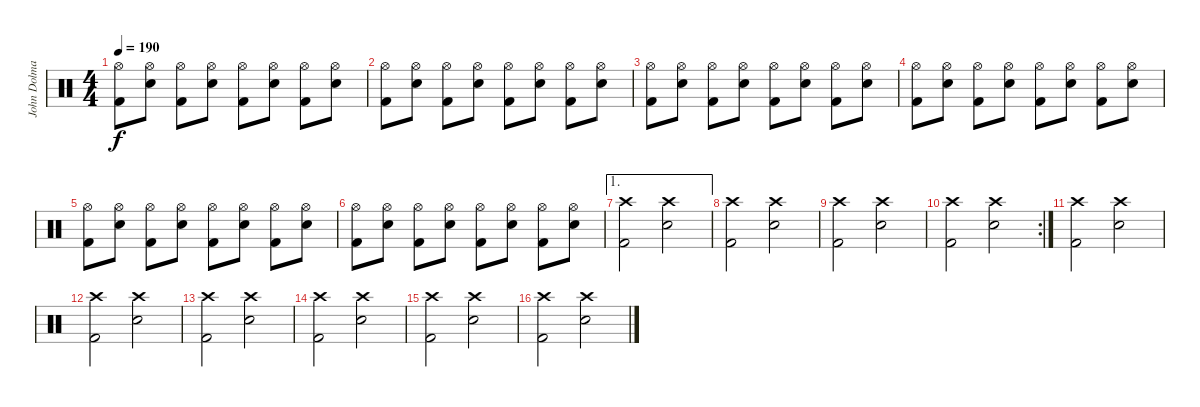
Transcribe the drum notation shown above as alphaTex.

\track ("John Dolmayan" "John Dolma") {instrument percussion}
\staff {score}
\articulation defaults
\ts (4 4)
\tempo 190
\clef neutral
\ks c
("Hi-Hat (open)" "Kick (hit) 2").8{dy f} ("Hi-Hat (open)" "Electric Snare (hit)").8 ("Hi-Hat (open)" "Kick (hit) 2").8 ("Hi-Hat (open)" "Electric Snare (hit)").8 ("Hi-Hat (open)" "Kick (hit) 2").8 ("Hi-Hat (open)" "Electric Snare (hit)").8 ("Hi-Hat (open)" "Kick (hit) 2").8 ("Hi-Hat (open)" "Electric Snare (hit)").8 |
("Hi-Hat (open)" "Kick (hit) 2").8 ("Hi-Hat (open)" "Electric Snare (hit)").8 ("Hi-Hat (open)" "Kick (hit) 2").8 ("Hi-Hat (open)" "Electric Snare (hit)").8 ("Hi-Hat (open)" "Kick (hit) 2").8 ("Hi-Hat (open)" "Electric Snare (hit)").8 ("Hi-Hat (open)" "Kick (hit) 2").8 ("Hi-Hat (open)" "Electric Snare (hit)").8 |
("Hi-Hat (open)" "Kick (hit) 2").8 ("Hi-Hat (open)" "Electric Snare (hit)").8 ("Hi-Hat (open)" "Kick (hit) 2").8 ("Hi-Hat (open)" "Electric Snare (hit)").8 ("Hi-Hat (open)" "Kick (hit) 2").8 ("Hi-Hat (open)" "Electric Snare (hit)").8 ("Hi-Hat (open)" "Kick (hit) 2").8 ("Hi-Hat (open)" "Electric Snare (hit)").8 |
("Hi-Hat (open)" "Kick (hit) 2").8 ("Hi-Hat (open)" "Electric Snare (hit)").8 ("Hi-Hat (open)" "Kick (hit) 2").8 ("Hi-Hat (open)" "Electric Snare (hit)").8 ("Hi-Hat (open)" "Kick (hit) 2").8 ("Hi-Hat (open)" "Electric Snare (hit)").8 ("Hi-Hat (open)" "Kick (hit) 2").8 ("Hi-Hat (open)" "Electric Snare (hit)").8 |
("Hi-Hat (open)" "Kick (hit) 2").8 ("Hi-Hat (open)" "Electric Snare (hit)").8 ("Hi-Hat (open)" "Kick (hit) 2").8 ("Hi-Hat (open)" "Electric Snare (hit)").8 ("Hi-Hat (open)" "Kick (hit) 2").8 ("Hi-Hat (open)" "Electric Snare (hit)").8 ("Hi-Hat (open)" "Kick (hit) 2").8 ("Hi-Hat (open)" "Electric Snare (hit)").8 |
("Hi-Hat (open)" "Kick (hit) 2").8 ("Hi-Hat (open)" "Electric Snare (hit)").8 ("Hi-Hat (open)" "Kick (hit) 2").8 ("Hi-Hat (open)" "Electric Snare (hit)").8 ("Hi-Hat (open)" "Kick (hit) 2").8 ("Hi-Hat (open)" "Electric Snare (hit)").8 ("Hi-Hat (open)" "Kick (hit) 2").8 ("Hi-Hat (open)" "Electric Snare (hit)").8 |
\ae 1
("Crash high (hit)" "Kick (hit) 2").2 ("Crash high (hit)" "Electric Snare (hit)").2 |
("Crash high (hit)" "Kick (hit) 2").2 ("Crash high (hit)" "Electric Snare (hit)").2 |
("Crash high (hit)" "Kick (hit) 2").2 ("Crash high (hit)" "Electric Snare (hit)").2 |
\rc 2
("Crash high (hit)" "Kick (hit) 2").2 ("Crash high (hit)" "Electric Snare (hit)").2 |
("Crash high (hit)" "Kick (hit) 2").2 ("Crash high (hit)" "Electric Snare (hit)").2 |
("Crash high (hit)" "Kick (hit) 2").2 ("Crash high (hit)" "Electric Snare (hit)").2 |
("Crash high (hit)" "Kick (hit) 2").2 ("Crash high (hit)" "Electric Snare (hit)").2 |
("Crash high (hit)" "Kick (hit) 2").2 ("Crash high (hit)" "Electric Snare (hit)").2 |
("Crash high (hit)" "Kick (hit) 2").2 ("Crash high (hit)" "Electric Snare (hit)").2 |
("Crash high (hit)" "Kick (hit) 2").2 ("Crash high (hit)" "Electric Snare (hit)").2
